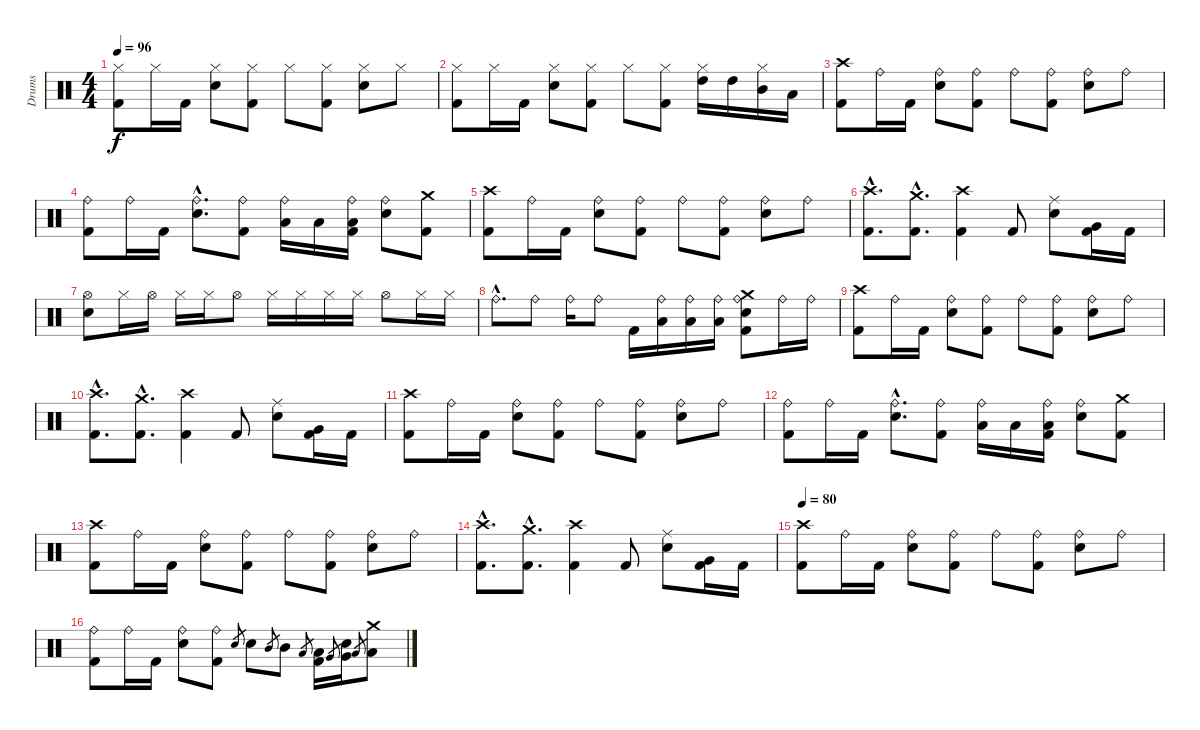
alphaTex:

\track ("Drums" "Drums") {instrument percussion}
\staff {score}
\articulation defaults
\ts (4 4)
\tempo 96
\clef neutral
\ks c
("Kick (hit) 2" "Hi-Hat (closed)").8{dy f} "Hi-Hat (closed)".16 "Kick (hit) 2".16 ("Snare (hit) 2" "Hi-Hat (closed)").8 ("Kick (hit) 2" "Hi-Hat (closed)").8 "Hi-Hat (closed)".8 ("Kick (hit) 2" "Hi-Hat (closed)").8 ("Snare (hit) 2" "Hi-Hat (closed)").8 "Hi-Hat (closed)".8 |
("Kick (hit) 2" "Hi-Hat (closed)").8 "Hi-Hat (closed)".16 "Kick (hit) 2".16 ("Snare (hit) 2" "Hi-Hat (closed)").8 ("Kick (hit) 2" "Hi-Hat (closed)").8 "Hi-Hat (closed)".8 ("Kick (hit) 2" "Hi-Hat (closed)").8 ("Hi-Hat (closed)" "High Tom (hit)").16 "High Tom (hit)".16 ("Hi-Hat (closed)" "Mid Tom (hit)").16 "Low Tom (hit)".16 |
("Kick (hit) 2" "Crash high (hit)").8 "Ride (bell)".16 "Kick (hit) 2".16 ("Snare (hit) 2" "Ride (bell)").8 ("Kick (hit) 2" "Ride (bell)").8 "Ride (bell)".8 ("Kick (hit) 2" "Ride (bell)").8 ("Snare (hit) 2" "Ride (bell)").8 "Ride (bell)".8 |
("Kick (hit) 2" "Ride (bell)").8 "Ride (bell)".16 "Kick (hit) 2".16 ("Snare (hit) 2"{hac} "Ride (bell)"{hac}).8{d} ("Kick (hit) 2" "Ride (bell)").8 ("Low Tom (hit)" "Ride (bell)").16 "Low Tom (hit)".16 ("Kick (hit) 2" "Low Tom (hit)" "Ride (bell)").16 ("Snare (hit) 2" "Ride (bell)").8 ("Kick (hit) 2" "Crash medium (hit)").8 |
("Kick (hit) 2" "Crash high (hit)").8 "Ride (bell)".16 "Kick (hit) 2".16 ("Snare (hit) 2" "Ride (bell)").8 ("Kick (hit) 2" "Ride (bell)").8 "Ride (bell)".8 ("Kick (hit) 2" "Ride (bell)").8 ("Snare (hit) 2" "Ride (bell)").8 "Ride (bell)".8 |
("Kick (hit) 2"{hac} "Crash high (hit)"{hac}).8{d} ("Kick (hit) 2"{hac} "Crash medium (hit)"{hac}).8{d} ("Kick (hit) 2" "Crash high (hit)").4 "Kick (hit) 2".8 ("Snare (hit) 2" "Ride (middle)").8 ("Kick (hit) 2" "Very Low Tom (hit)").16 "Kick (hit) 2".16 |
("Snare (hit) 2" "Hi-Hat (open)").8 "Hi-Hat (closed)".16 "Hi-Hat (open)".16 "Hi-Hat (closed)".16 "Hi-Hat (closed)".16 "Hi-Hat (open)".8 "Hi-Hat (closed)".16 "Hi-Hat (closed)".16 "Hi-Hat (closed)".16 "Hi-Hat (closed)".16 "Hi-Hat (open)".8 "Hi-Hat (closed)".16 "Hi-Hat (closed)".16 |
"Ride (bell)"{hac}.8{d} "Ride (bell)".8 "Ride (bell)".16 "Ride (bell)".8 "Kick (hit) 2".16 ("Low Tom (hit)" "Ride (bell)").16 ("Low Tom (hit)" "Ride (bell)").16 ("Low Tom (hit)" "Ride (bell)").16 ("Kick (hit) 2" "Snare (hit) 2" "Crash medium (hit)" "Ride (bell)").8 "Ride (bell)".16 "Ride (bell)".16 |
("Kick (hit) 2" "Crash high (hit)").8 "Ride (bell)".16 "Kick (hit) 2".16 ("Snare (hit) 2" "Ride (bell)").8 ("Kick (hit) 2" "Ride (bell)").8 "Ride (bell)".8 ("Kick (hit) 2" "Ride (bell)").8 ("Snare (hit) 2" "Ride (bell)").8 "Ride (bell)".8 |
("Kick (hit) 2"{hac} "Crash high (hit)"{hac}).8{d} ("Kick (hit) 2"{hac} "Crash medium (hit)"{hac}).8{d} ("Kick (hit) 2" "Crash high (hit)").4 "Kick (hit) 2".8 ("Snare (hit) 2" "Ride (middle)").8 ("Kick (hit) 2" "Very Low Tom (hit)").16 "Kick (hit) 2".16 |
("Kick (hit) 2" "Crash high (hit)").8 "Ride (bell)".16 "Kick (hit) 2".16 ("Snare (hit) 2" "Ride (bell)").8 ("Kick (hit) 2" "Ride (bell)").8 "Ride (bell)".8 ("Kick (hit) 2" "Ride (bell)").8 ("Snare (hit) 2" "Ride (bell)").8 "Ride (bell)".8 |
("Kick (hit) 2" "Ride (bell)").8 "Ride (bell)".16 "Kick (hit) 2".16 ("Snare (hit) 2"{hac} "Ride (bell)"{hac}).8{d} ("Kick (hit) 2" "Ride (bell)").8 ("Low Tom (hit)" "Ride (bell)").16 "Low Tom (hit)".16 ("Kick (hit) 2" "Low Tom (hit)" "Ride (bell)").16 ("Snare (hit) 2" "Ride (bell)").8 ("Kick (hit) 2" "Crash medium (hit)").8 |
("Kick (hit) 2" "Crash high (hit)").8 "Ride (bell)".16 "Kick (hit) 2".16 ("Snare (hit) 2" "Ride (bell)").8 ("Kick (hit) 2" "Ride (bell)").8 "Ride (bell)".8 ("Kick (hit) 2" "Ride (bell)").8 ("Snare (hit) 2" "Ride (bell)").8 "Ride (bell)".8 |
("Kick (hit) 2"{hac} "Crash high (hit)"{hac}).8{d} ("Kick (hit) 2"{hac} "Crash medium (hit)"{hac}).8{d} ("Kick (hit) 2" "Crash high (hit)").4 "Kick (hit) 2".8 ("Snare (hit) 2" "Ride (middle)").8 ("Kick (hit) 2" "Very Low Tom (hit)").16 "Kick (hit) 2".16 |
\tempo 80
("Kick (hit) 2" "Crash high (hit)").8 "Ride (bell)".16 "Kick (hit) 2".16 ("Snare (hit) 2" "Ride (bell)").8 ("Kick (hit) 2" "Ride (bell)").8 "Ride (bell)".8 ("Kick (hit) 2" "Ride (bell)").8 ("Snare (hit) 2" "Ride (bell)").8 "Ride (bell)".8 |
("Kick (hit) 2" "Ride (bell)").8 "Ride (bell)".16 "Kick (hit) 2".16 ("Snare (hit) 2" "Ride (bell)").8 ("Kick (hit) 2" "Ride (bell)").8 "Snare (hit) 2".8{gr} "Snare (hit) 2".8 "Mid Tom (hit)".8{gr} "Mid Tom (hit)".8 "Low Tom (hit)".8{gr} ("Kick (hit) 2" "Low Tom (hit)").16 "Very Low Tom (hit)".8{gr} ("Snare (hit) 2" "Very Low Tom (hit)").16 "Low Floor Tom (hit)".8{gr} ("Low Floor Tom (hit)" "Crash medium (hit)").8
